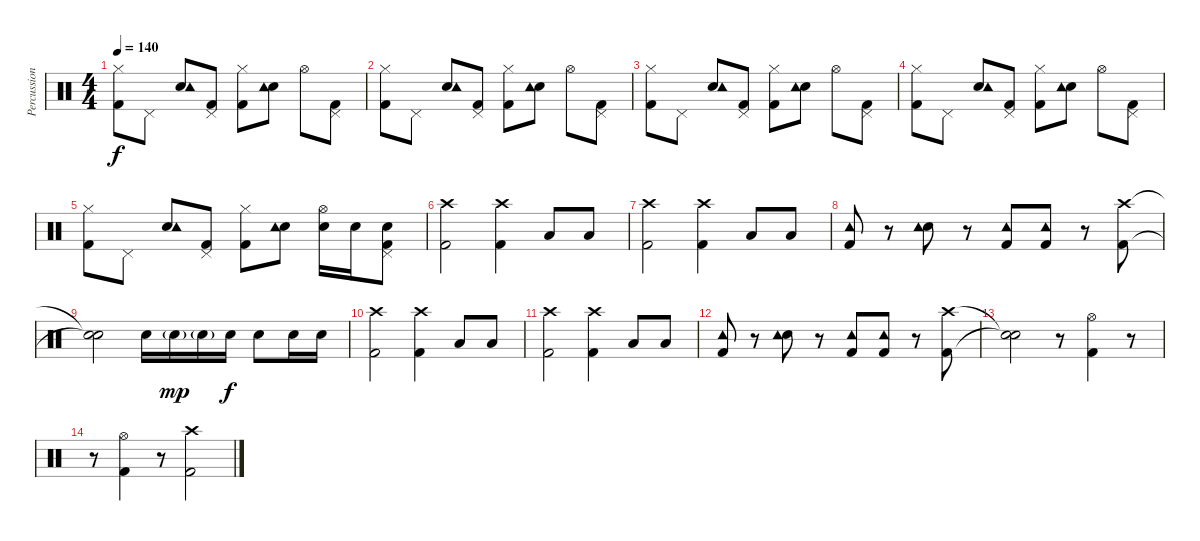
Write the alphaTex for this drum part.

\track ("Percussion" "Percussion") {instrument percussion}
\staff {score}
\articulation defaults
\ts (4 4)
\tempo 140
\clef neutral
\ks c
("Kick (hit) 2" "Hi-Hat (closed)").8{dy f} "Pedal Hi-Hat (hit)".8 ("Electric Snare (hit)" "Tambourine (hit)").8 ("Kick (hit) 2" "Pedal Hi-Hat (hit)").8 ("Kick (hit) 2" "Hi-Hat (closed)").8 ("Electric Snare (hit)" "Tambourine (hit)").8 "Hi-Hat (open)".8 ("Kick (hit) 2" "Pedal Hi-Hat (hit)").8 |
("Kick (hit) 2" "Hi-Hat (closed)").8 "Pedal Hi-Hat (hit)".8 ("Electric Snare (hit)" "Tambourine (hit)").8 ("Kick (hit) 2" "Pedal Hi-Hat (hit)").8 ("Kick (hit) 2" "Hi-Hat (closed)").8 ("Electric Snare (hit)" "Tambourine (hit)").8 "Hi-Hat (open)".8 ("Kick (hit) 2" "Pedal Hi-Hat (hit)").8 |
("Kick (hit) 2" "Hi-Hat (closed)").8 "Pedal Hi-Hat (hit)".8 ("Electric Snare (hit)" "Tambourine (hit)").8 ("Kick (hit) 2" "Pedal Hi-Hat (hit)").8 ("Kick (hit) 2" "Hi-Hat (closed)").8 ("Electric Snare (hit)" "Tambourine (hit)").8 "Hi-Hat (open)".8 ("Kick (hit) 2" "Pedal Hi-Hat (hit)").8 |
("Kick (hit) 2" "Hi-Hat (closed)").8 "Pedal Hi-Hat (hit)".8 ("Electric Snare (hit)" "Tambourine (hit)").8 ("Kick (hit) 2" "Pedal Hi-Hat (hit)").8 ("Kick (hit) 2" "Hi-Hat (closed)").8 ("Electric Snare (hit)" "Tambourine (hit)").8 "Hi-Hat (open)".8 ("Kick (hit) 2" "Pedal Hi-Hat (hit)").8 |
("Kick (hit) 2" "Hi-Hat (closed)").8 "Pedal Hi-Hat (hit)".8 ("Electric Snare (hit)" "Tambourine (hit)").8 ("Kick (hit) 2" "Pedal Hi-Hat (hit)").8 ("Kick (hit) 2" "Hi-Hat (closed)").8 ("Electric Snare (hit)" "Tambourine (hit)").8 ("Electric Snare (hit)" "Hi-Hat (open)").16 "Electric Snare (hit)".16 ("Kick (hit) 2" "Electric Snare (hit)" "Pedal Hi-Hat (hit)").8 |
("Kick (hit) 2" "Crash high (hit)").2 ("Kick (hit) 2" "Crash high (hit)").4 "Low Tom (hit)".8 "Low Tom (hit)".8 |
("Kick (hit) 2" "Crash high (hit)").2 ("Kick (hit) 2" "Crash high (hit)").4 "Low Floor Tom (hit)".8 "Low Tom (hit)".8 |
("Kick (hit) 2" "Tambourine (hit)").8 r.8 ("Electric Snare (hit)" "Tambourine (hit)").8 r.8 ("Kick (hit) 2" "Tambourine (hit)").8 ("Kick (hit) 2" "Tambourine (hit)").8 r.8 ("Kick (hit) 2" "Crash high (hit)").8 |
("Snare (hit)"{t} "Snare (hit)"{t}).2 "Electric Snare (hit)".16 "Electric Snare (hit)"{g}.16{dy mp} "Electric Snare (hit)"{g}.16 "Electric Snare (hit)".16{dy f} "Electric Snare (hit)".8 "Electric Snare (hit)".16 "Electric Snare (hit)".16 |
("Kick (hit) 2" "Crash high (hit)").2 ("Kick (hit) 2" "Crash high (hit)").4 "Low Tom (hit)".8 "Low Tom (hit)".8 |
("Kick (hit) 2" "Crash high (hit)").2 ("Kick (hit) 2" "Crash high (hit)").4 "Low Floor Tom (hit)".8 "Low Tom (hit)".8 |
("Kick (hit) 2" "Tambourine (hit)").8 r.8 ("Electric Snare (hit)" "Tambourine (hit)").8 r.8 ("Kick (hit) 2" "Tambourine (hit)").8 ("Kick (hit) 2" "Tambourine (hit)").8 r.8 ("Kick (hit) 2" "Crash high (hit)").8 |
("Snare (hit)"{t} "Snare (hit)"{t}).2 r.8 ("Kick (hit) 2" "Hi-Hat (open)").4 r.8 |
r.8 ("Kick (hit) 2" "Hi-Hat (open)").4 r.8 ("Kick (hit) 2" "Crash high (hit)").2
